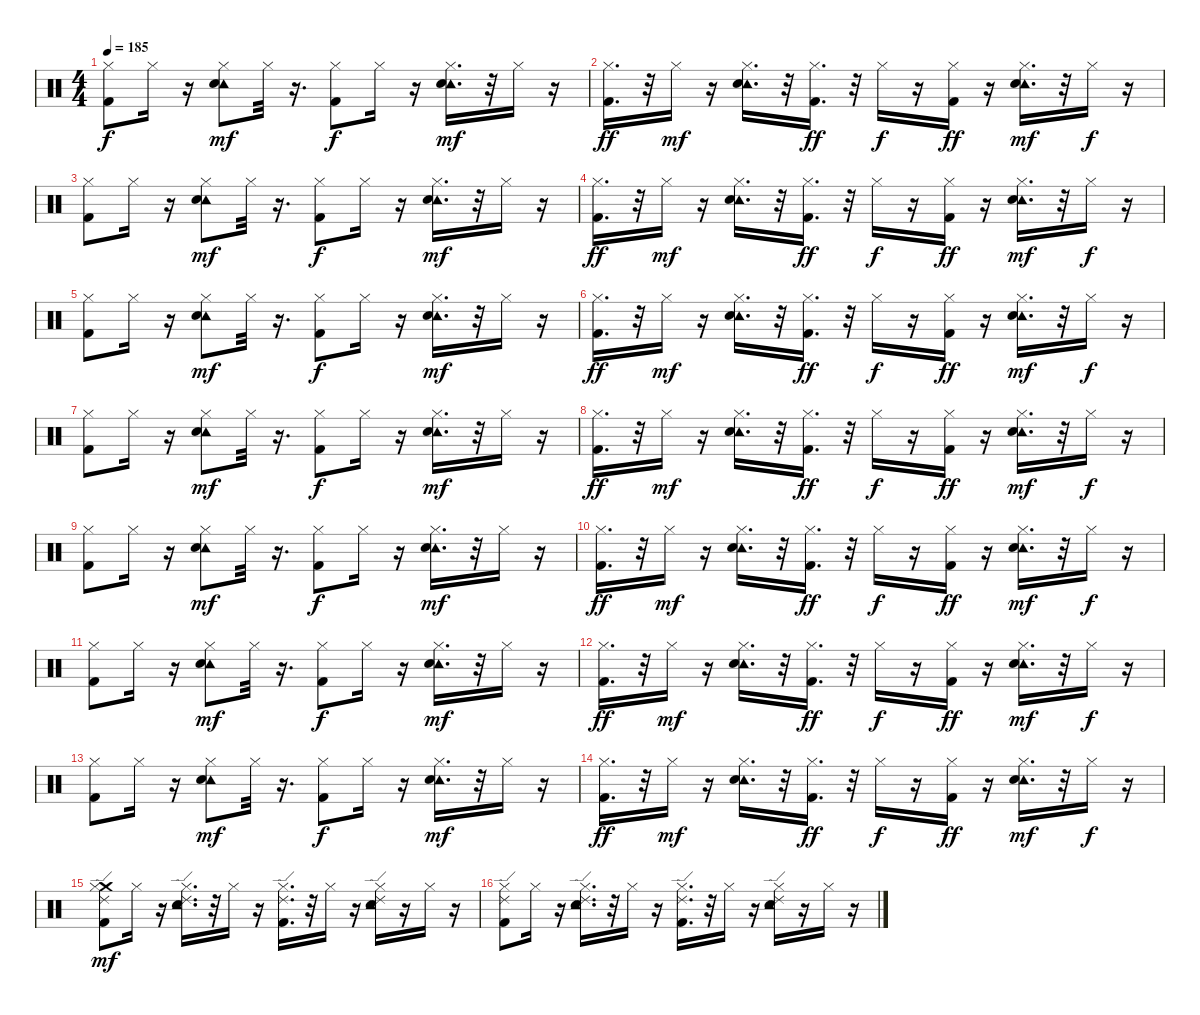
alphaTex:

\track "" {instrument percussion}
\staff {score}
\articulation defaults
\ts (4 4)
\tempo 185
\clef neutral
\ks c
("Hi-Hat (closed)" "Kick (hit) 2").8{dy f} "Hi-Hat (closed)".16 r.16 ("Tambourine (hit)" "Hi-Hat (closed)" "Snare (hit) 2").8{dy mf} "Hi-Hat (closed)".32 r.16{d} ("Hi-Hat (closed)" "Kick (hit) 2").8{dy f} "Hi-Hat (closed)".16 r.16 ("Tambourine (hit)" "Hi-Hat (closed)" "Snare (hit) 2").16{d dy mf} r.32 "Hi-Hat (closed)".16 r.16 |
("Hi-Hat (closed)" "Kick (hit) 2").16{d dy ff} r.32 "Hi-Hat (closed)".16{dy mf} r.16 ("Tambourine (hit)" "Hi-Hat (closed)" "Snare (hit) 2").16{d} r.32 ("Hi-Hat (closed)" "Kick (hit) 2").16{d dy ff} r.32 "Hi-Hat (closed)".16{dy f} r.16 ("Hi-Hat (closed)" "Kick (hit) 2").16{dy ff} r.16 ("Tambourine (hit)" "Hi-Hat (closed)" "Snare (hit) 2").16{d dy mf} r.32 "Hi-Hat (closed)".16{dy f} r.16 |
("Hi-Hat (closed)" "Kick (hit) 2").8 "Hi-Hat (closed)".16 r.16 ("Tambourine (hit)" "Hi-Hat (closed)" "Snare (hit) 2").8{dy mf} "Hi-Hat (closed)".32 r.16{d} ("Hi-Hat (closed)" "Kick (hit) 2").8{dy f} "Hi-Hat (closed)".16 r.16 ("Tambourine (hit)" "Hi-Hat (closed)" "Snare (hit) 2").16{d dy mf} r.32 "Hi-Hat (closed)".16 r.16 |
("Hi-Hat (closed)" "Kick (hit) 2").16{d dy ff} r.32 "Hi-Hat (closed)".16{dy mf} r.16 ("Tambourine (hit)" "Hi-Hat (closed)" "Snare (hit) 2").16{d} r.32 ("Hi-Hat (closed)" "Kick (hit) 2").16{d dy ff} r.32 "Hi-Hat (closed)".16{dy f} r.16 ("Hi-Hat (closed)" "Kick (hit) 2").16{dy ff} r.16 ("Tambourine (hit)" "Hi-Hat (closed)" "Snare (hit) 2").16{d dy mf} r.32 "Hi-Hat (closed)".16{dy f} r.16 |
("Hi-Hat (closed)" "Kick (hit) 2").8 "Hi-Hat (closed)".16 r.16 ("Tambourine (hit)" "Hi-Hat (closed)" "Snare (hit) 2").8{dy mf} "Hi-Hat (closed)".32 r.16{d} ("Hi-Hat (closed)" "Kick (hit) 2").8{dy f} "Hi-Hat (closed)".16 r.16 ("Tambourine (hit)" "Hi-Hat (closed)" "Snare (hit) 2").16{d dy mf} r.32 "Hi-Hat (closed)".16 r.16 |
("Hi-Hat (closed)" "Kick (hit) 2").16{d dy ff} r.32 "Hi-Hat (closed)".16{dy mf} r.16 ("Tambourine (hit)" "Hi-Hat (closed)" "Snare (hit) 2").16{d} r.32 ("Hi-Hat (closed)" "Kick (hit) 2").16{d dy ff} r.32 "Hi-Hat (closed)".16{dy f} r.16 ("Hi-Hat (closed)" "Kick (hit) 2").16{dy ff} r.16 ("Tambourine (hit)" "Hi-Hat (closed)" "Snare (hit) 2").16{d dy mf} r.32 "Hi-Hat (closed)".16{dy f} r.16 |
("Hi-Hat (closed)" "Kick (hit) 2").8 "Hi-Hat (closed)".16 r.16 ("Tambourine (hit)" "Hi-Hat (closed)" "Snare (hit) 2").8{dy mf} "Hi-Hat (closed)".32 r.16{d} ("Hi-Hat (closed)" "Kick (hit) 2").8{dy f} "Hi-Hat (closed)".16 r.16 ("Tambourine (hit)" "Hi-Hat (closed)" "Snare (hit) 2").16{d dy mf} r.32 "Hi-Hat (closed)".16 r.16 |
("Hi-Hat (closed)" "Kick (hit) 2").16{d dy ff} r.32 "Hi-Hat (closed)".16{dy mf} r.16 ("Tambourine (hit)" "Hi-Hat (closed)" "Snare (hit) 2").16{d} r.32 ("Hi-Hat (closed)" "Kick (hit) 2").16{d dy ff} r.32 "Hi-Hat (closed)".16{dy f} r.16 ("Hi-Hat (closed)" "Kick (hit) 2").16{dy ff} r.16 ("Tambourine (hit)" "Hi-Hat (closed)" "Snare (hit) 2").16{d dy mf} r.32 "Hi-Hat (closed)".16{dy f} r.16 |
("Hi-Hat (closed)" "Kick (hit) 2").8 "Hi-Hat (closed)".16 r.16 ("Tambourine (hit)" "Hi-Hat (closed)" "Snare (hit) 2").8{dy mf} "Hi-Hat (closed)".32 r.16{d} ("Hi-Hat (closed)" "Kick (hit) 2").8{dy f} "Hi-Hat (closed)".16 r.16 ("Tambourine (hit)" "Hi-Hat (closed)" "Snare (hit) 2").16{d dy mf} r.32 "Hi-Hat (closed)".16 r.16 |
("Hi-Hat (closed)" "Kick (hit) 2").16{d dy ff} r.32 "Hi-Hat (closed)".16{dy mf} r.16 ("Tambourine (hit)" "Hi-Hat (closed)" "Snare (hit) 2").16{d} r.32 ("Hi-Hat (closed)" "Kick (hit) 2").16{d dy ff} r.32 "Hi-Hat (closed)".16{dy f} r.16 ("Hi-Hat (closed)" "Kick (hit) 2").16{dy ff} r.16 ("Tambourine (hit)" "Hi-Hat (closed)" "Snare (hit) 2").16{d dy mf} r.32 "Hi-Hat (closed)".16{dy f} r.16 |
("Hi-Hat (closed)" "Kick (hit) 2").8 "Hi-Hat (closed)".16 r.16 ("Tambourine (hit)" "Hi-Hat (closed)" "Snare (hit) 2").8{dy mf} "Hi-Hat (closed)".32 r.16{d} ("Hi-Hat (closed)" "Kick (hit) 2").8{dy f} "Hi-Hat (closed)".16 r.16 ("Tambourine (hit)" "Hi-Hat (closed)" "Snare (hit) 2").16{d dy mf} r.32 "Hi-Hat (closed)".16 r.16 |
("Hi-Hat (closed)" "Kick (hit) 2").16{d dy ff} r.32 "Hi-Hat (closed)".16{dy mf} r.16 ("Tambourine (hit)" "Hi-Hat (closed)" "Snare (hit) 2").16{d} r.32 ("Hi-Hat (closed)" "Kick (hit) 2").16{d dy ff} r.32 "Hi-Hat (closed)".16{dy f} r.16 ("Hi-Hat (closed)" "Kick (hit) 2").16{dy ff} r.16 ("Tambourine (hit)" "Hi-Hat (closed)" "Snare (hit) 2").16{d dy mf} r.32 "Hi-Hat (closed)".16{dy f} r.16 |
("Hi-Hat (closed)" "Kick (hit) 2").8 "Hi-Hat (closed)".16 r.16 ("Tambourine (hit)" "Hi-Hat (closed)" "Snare (hit) 2").8{dy mf} "Hi-Hat (closed)".32 r.16{d} ("Hi-Hat (closed)" "Kick (hit) 2").8{dy f} "Hi-Hat (closed)".16 r.16 ("Tambourine (hit)" "Hi-Hat (closed)" "Snare (hit) 2").16{d dy mf} r.32 "Hi-Hat (closed)".16 r.16 |
("Hi-Hat (closed)" "Kick (hit) 2").16{d dy ff} r.32 "Hi-Hat (closed)".16{dy mf} r.16 ("Tambourine (hit)" "Hi-Hat (closed)" "Snare (hit) 2").16{d} r.32 ("Hi-Hat (closed)" "Kick (hit) 2").16{d dy ff} r.32 "Hi-Hat (closed)".16{dy f} r.16 ("Hi-Hat (closed)" "Kick (hit) 2").16{dy ff} r.16 ("Tambourine (hit)" "Hi-Hat (closed)" "Snare (hit) 2").16{d dy mf} r.32 "Hi-Hat (closed)".16{dy f} r.16 |
("Crash medium (hit)" "Ride (edge) 2" "Hi-Hat (closed)" "Kick (hit) 2").8{dy mf} "Hi-Hat (closed)".16 r.16 ("Ride (edge) 2" "Hi-Hat (closed)" "Tambourine (hit)" "Snare (hit) 2").16{d} r.32 "Hi-Hat (closed)".16 r.16 ("Ride (edge) 2" "Hi-Hat (closed)" "Kick (hit) 2").16{d} r.32 "Hi-Hat (closed)".16 r.16 ("Ride (edge) 2" "Hi-Hat (closed)" "Tambourine (hit)" "Snare (hit) 2").16 r.16 "Hi-Hat (closed)".16 r.16 |
("Ride (edge) 2" "Hi-Hat (closed)" "Kick (hit) 2").8 "Hi-Hat (closed)".16 r.16 ("Ride (edge) 2" "Hi-Hat (closed)" "Tambourine (hit)" "Snare (hit) 2").16{d} r.32 "Hi-Hat (closed)".16 r.16 ("Ride (edge) 2" "Hi-Hat (closed)" "Kick (hit) 2").16{d} r.32 "Hi-Hat (closed)".16 r.16 ("Ride (edge) 2" "Hi-Hat (closed)" "Tambourine (hit)" "Snare (hit) 2").16 r.16 "Hi-Hat (closed)".16 r.16
